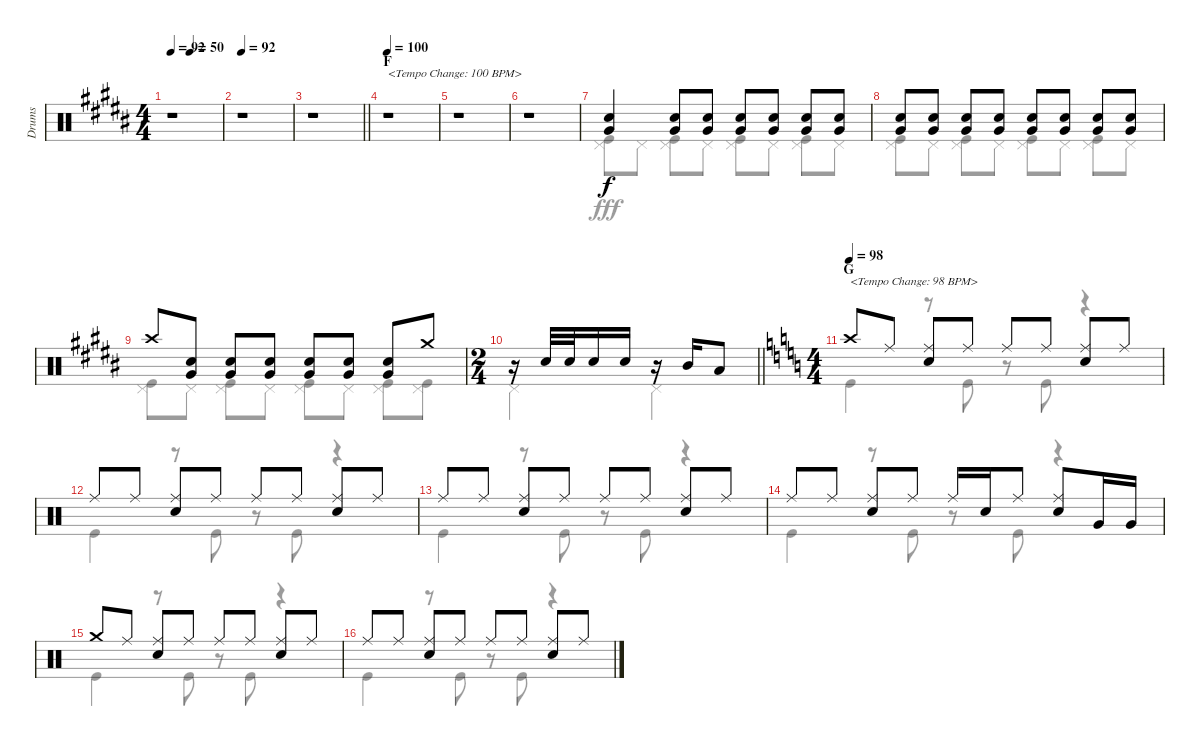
\track ("Drums" "Drums") {instrument percussion}
\staff {score}
\articulation defaults
\voice
\ts (4 4)
\tempo 92
\tempo (50 0.375)
\clef neutral
\ks b
r.1{dy f} |
\tempo 92
r.1 |
\barLineRight lightlight
r.1 |
\section ("" "F")
\tempo 100
r.1{txt "<Tempo Change: 100 BPM>"} |
r.1 |
r.1 |
("Snare (hit) 2" "Very Low Tom (hit)").4 ("Snare (hit) 2" "Very Low Tom (hit)").8 ("Snare (hit) 2" "Very Low Tom (hit)").8 ("Snare (hit) 2" "Very Low Tom (hit)").8 ("Snare (hit) 2" "Very Low Tom (hit)").8 ("Snare (hit) 2" "Very Low Tom (hit)").8 ("Snare (hit) 2" "Very Low Tom (hit)").8 |
("Snare (hit) 2" "Very Low Tom (hit)").8 ("Snare (hit) 2" "Very Low Tom (hit)").8 ("Snare (hit) 2" "Very Low Tom (hit)").8 ("Snare (hit) 2" "Very Low Tom (hit)").8 ("Snare (hit) 2" "Very Low Tom (hit)").8 ("Snare (hit) 2" "Very Low Tom (hit)").8 ("Snare (hit) 2" "Very Low Tom (hit)").8 ("Snare (hit) 2" "Very Low Tom (hit)").8 |
"Crash high (hit)".8 ("Snare (hit) 2" "Very Low Tom (hit)").8 ("Snare (hit) 2" "Very Low Tom (hit)").8 ("Snare (hit) 2" "Very Low Tom (hit)").8 ("Snare (hit) 2" "Very Low Tom (hit)").8 ("Snare (hit) 2" "Very Low Tom (hit)").8 ("Snare (hit) 2" "Very Low Tom (hit)").8 "Crash medium (hit)".8 |
\ts (2 4)
\barLineRight lightlight
r.16 "Snare (hit) 2".32 "Snare (hit) 2".32 "Snare (hit) 2".16 "Snare (hit) 2".16 r.16 "Mid Tom (hit)".16 "Low Tom (hit)".8 |
\ts (4 4)
\section ("" "G")
\tempo 98
\ks c "Crash high (hit)".8{txt "<Tempo Change: 98 BPM>"} "Ride (middle)".8
("Ride (middle)" "Snare (hit) 2").8 "Ride (middle)".8 "Ride (middle)".8 "Ride (middle)".8 ("Ride (middle)" "Snare (hit) 2").8 "Ride (middle)".8 |
"Ride (middle)".8 "Ride (middle)".8 ("Ride (middle)" "Snare (hit) 2").8 "Ride (middle)".8 "Ride (middle)".8 "Ride (middle)".8 ("Ride (middle)" "Snare (hit) 2").8 "Ride (middle)".8 |
"Ride (middle)".8 "Ride (middle)".8 ("Ride (middle)" "Snare (hit) 2").8 "Ride (middle)".8 "Ride (middle)".8 "Ride (middle)".8 ("Ride (middle)" "Snare (hit) 2").8 "Ride (middle)".8 |
"Ride (middle)".8 "Ride (middle)".8 ("Ride (middle)" "Snare (hit) 2").8 "Ride (middle)".8 "Ride (middle)".16 "Snare (hit) 2".16 "Ride (middle)".8 ("Ride (middle)" "Snare (hit) 2").8 "Very Low Tom (hit)".16 "Very Low Tom (hit)".16 |
"Crash medium (hit)".8 "Ride (middle)".8 ("Ride (middle)" "Snare (hit) 2").8 "Ride (middle)".8 "Ride (middle)".8 "Ride (middle)".8 ("Ride (middle)" "Snare (hit) 2").8 "Ride (middle)".8 |
"Ride (middle)".8 "Ride (middle)".8 ("Ride (middle)" "Snare (hit) 2").8 "Ride (middle)".8 "Ride (middle)".8 "Ride (middle)".8 ("Ride (middle)" "Snare (hit) 2").8 "Ride (middle)".8
\voice
\clef neutral
\ottava regular
\simile none
\ks b
r.1{dy fff} |
r.1 |
\barLineRight lightlight
r.1 |
r.1 |
r.1 |
r.1 |
("Pedal Hi-Hat (hit)" "Kick (hit)").8 "Pedal Hi-Hat (hit)".8 ("Pedal Hi-Hat (hit)" "Kick (hit)").8 "Pedal Hi-Hat (hit)".8 ("Pedal Hi-Hat (hit)" "Kick (hit)").8 "Pedal Hi-Hat (hit)".8 ("Pedal Hi-Hat (hit)" "Kick (hit)").8 "Pedal Hi-Hat (hit)".8 |
("Pedal Hi-Hat (hit)" "Kick (hit)").8 "Pedal Hi-Hat (hit)".8 ("Pedal Hi-Hat (hit)" "Kick (hit)").8 "Pedal Hi-Hat (hit)".8 ("Pedal Hi-Hat (hit)" "Kick (hit)").8 "Pedal Hi-Hat (hit)".8 ("Pedal Hi-Hat (hit)" "Kick (hit)").8 "Pedal Hi-Hat (hit)".8 |
("Pedal Hi-Hat (hit)" "Kick (hit)").8 "Pedal Hi-Hat (hit)".8 ("Pedal Hi-Hat (hit)" "Kick (hit)").8 "Pedal Hi-Hat (hit)".8 ("Pedal Hi-Hat (hit)" "Kick (hit)").8 "Pedal Hi-Hat (hit)".8 ("Pedal Hi-Hat (hit)" "Kick (hit)").8 ("Pedal Hi-Hat (hit)" "Kick (hit)").8 |
\barLineRight lightlight "Pedal Hi-Hat (hit)".4 "Pedal Hi-Hat (hit)".4
|
\ks c "Kick (hit)".4
r.8 "Kick (hit)".8 r.8 "Kick (hit)".8 r.4 |
"Kick (hit)".4 r.8 "Kick (hit)".8 r.8 "Kick (hit)".8 r.4 |
"Kick (hit)".4 r.8 "Kick (hit)".8 r.8 "Kick (hit)".8 r.4 |
"Kick (hit)".4 r.8 "Kick (hit)".8 r.8 "Kick (hit)".8 r.4 |
"Kick (hit)".4 r.8 "Kick (hit)".8 r.8 "Kick (hit)".8 r.4 |
"Kick (hit)".4 r.8 "Kick (hit)".8 r.8 "Kick (hit)".8 r.4
